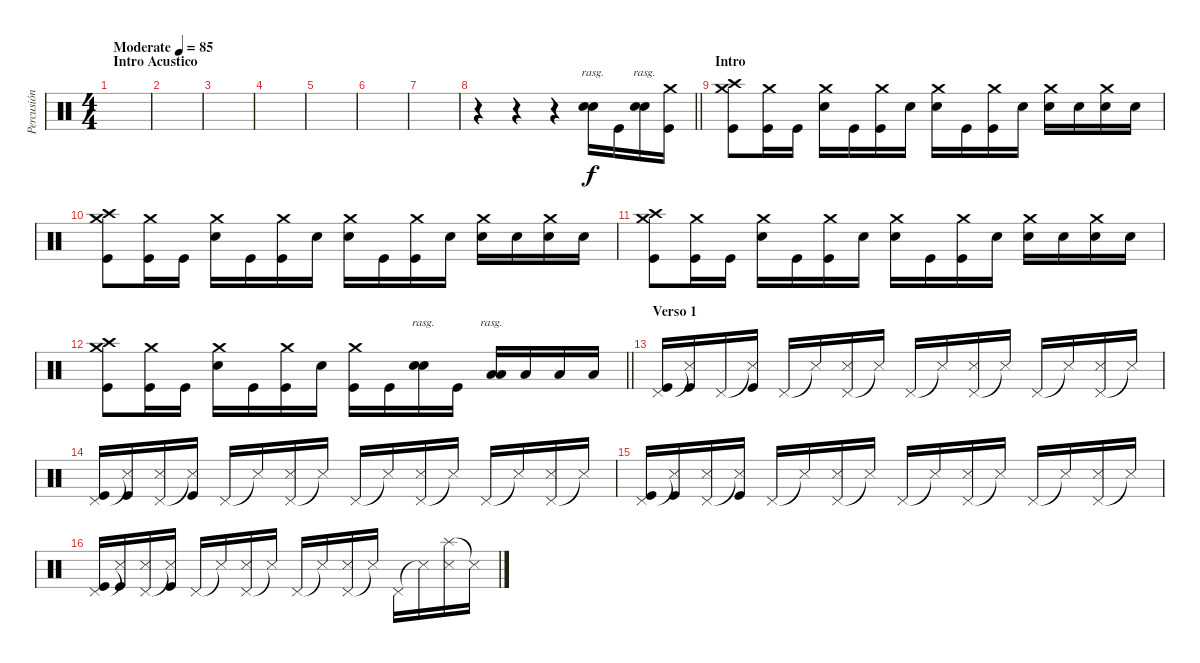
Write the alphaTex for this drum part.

\track ("Percusión" "Percusión") {instrument percussion}
\staff {score}
\articulation defaults
\ts (4 4)
\section ("" "Intro Acustico")
\tempo (85 "Moderate")
\clef neutral
\ks c
|
|
|
|
|
|
|
\barLineRight lightlight
r.4 r.4 r.4 ("Electric Snare (hit)" "Electric Snare (hit)").16{bd 240 rasg ii} "Kick (hit)".16 ("Electric Snare (hit)" "Electric Snare (hit)").16{bd 240 rasg ii} ("Crash medium (hit)" "Kick (hit)").16 |
\section ("" "Intro")
("Crash medium (hit)" "Crash high (hit)" "Kick (hit)").8 ("Crash medium (hit)" "Kick (hit)").16 "Kick (hit)".16 ("Crash medium (hit)" "Electric Snare (hit)").16 "Kick (hit)".16 ("Crash medium (hit)" "Kick (hit)").16 "Electric Snare (hit)".16 ("Crash medium (hit)" "Electric Snare (hit)").16 "Kick (hit)".16 ("Crash medium (hit)" "Kick (hit)").16 "Electric Snare (hit)".16 ("Crash medium (hit)" "Electric Snare (hit)").16 "Electric Snare (hit)".16 ("Crash medium (hit)" "Electric Snare (hit)").16 "Electric Snare (hit)".16 |
("Crash medium (hit)" "Crash high (hit)" "Kick (hit)").8 ("Crash medium (hit)" "Kick (hit)").16 "Kick (hit)".16 ("Crash medium (hit)" "Electric Snare (hit)").16 "Kick (hit)".16 ("Crash medium (hit)" "Kick (hit)").16 "Electric Snare (hit)".16 ("Crash medium (hit)" "Electric Snare (hit)").16 "Kick (hit)".16 ("Crash medium (hit)" "Kick (hit)").16 "Electric Snare (hit)".16 ("Crash medium (hit)" "Electric Snare (hit)").16 "Electric Snare (hit)".16 ("Crash medium (hit)" "Electric Snare (hit)").16 "Electric Snare (hit)".16 |
("Crash medium (hit)" "Crash high (hit)" "Kick (hit)").8 ("Crash medium (hit)" "Kick (hit)").16 "Kick (hit)".16 ("Crash medium (hit)" "Electric Snare (hit)").16 "Kick (hit)".16 ("Crash medium (hit)" "Kick (hit)").16 "Electric Snare (hit)".16 ("Crash medium (hit)" "Electric Snare (hit)").16 "Kick (hit)".16 ("Crash medium (hit)" "Kick (hit)").16 "Electric Snare (hit)".16 ("Crash medium (hit)" "Electric Snare (hit)").16 "Electric Snare (hit)".16 ("Crash medium (hit)" "Electric Snare (hit)").16 "Electric Snare (hit)".16 |
\barLineRight lightlight
("Crash medium (hit)" "Crash high (hit)" "Kick (hit)").8 ("Crash medium (hit)" "Kick (hit)").16 "Kick (hit)".16 ("Crash medium (hit)" "Electric Snare (hit)").16 "Kick (hit)".16 ("Crash medium (hit)" "Kick (hit)").16 "Electric Snare (hit)".16 ("Crash medium (hit)" "Kick (hit)").16 "Kick (hit)".16 ("Electric Snare (hit)" "Electric Snare (hit)").16{bd 240 rasg ii} "Kick (hit)".16 ("Low Tom (hit)" "Low Tom (hit)").16{bd 240 rasg ii} "Low Floor Tom (hit)".16 "Low Floor Tom (hit)".16 "Low Floor Tom (hit)".16 |
\section ("" "Verso 1")
("Pedal Hi-Hat (hit)" "Kick (hit)").16 ("Snare (side stick) 3"{t} "Kick (hit)").16 "Pedal Hi-Hat (hit)".16 ("Snare (side stick) 3"{t} "Kick (hit)").16 "Pedal Hi-Hat (hit)".16 "Snare (side stick) 3"{t}.16 ("Pedal Hi-Hat (hit)" "Snare (side stick) 3").16 "Snare (side stick) 3"{t}.16 "Pedal Hi-Hat (hit)".16 "Snare (side stick) 3"{t}.16 ("Pedal Hi-Hat (hit)" "Snare (side stick) 3").16 "Snare (side stick) 3"{t}.16 "Pedal Hi-Hat (hit)".16 "Snare (side stick) 3"{t}.16 ("Pedal Hi-Hat (hit)" "Snare (side stick) 3").16 "Snare (side stick) 3"{t}.16 |
("Pedal Hi-Hat (hit)" "Kick (hit)").16 ("Snare (side stick) 3"{t} "Kick (hit)").16 ("Pedal Hi-Hat (hit)" "Snare (side stick) 3").16 ("Snare (side stick) 3"{t} "Kick (hit)").16 "Pedal Hi-Hat (hit)".16 "Snare (side stick) 3"{t}.16 ("Pedal Hi-Hat (hit)" "Snare (side stick) 3").16 "Snare (side stick) 3"{t}.16 "Pedal Hi-Hat (hit)".16 "Snare (side stick) 3"{t}.16 ("Pedal Hi-Hat (hit)" "Snare (side stick) 3").16 "Snare (side stick) 3"{t}.16 "Pedal Hi-Hat (hit)".16 "Snare (side stick) 3"{t}.16 ("Pedal Hi-Hat (hit)" "Snare (side stick) 3").16 "Snare (side stick) 3"{t}.16 |
("Pedal Hi-Hat (hit)" "Kick (hit)").16 ("Snare (side stick) 3"{t} "Kick (hit)").16 ("Pedal Hi-Hat (hit)" "Snare (side stick) 3").16 ("Snare (side stick) 3"{t} "Kick (hit)").16 "Pedal Hi-Hat (hit)".16 "Snare (side stick) 3"{t}.16 ("Pedal Hi-Hat (hit)" "Snare (side stick) 3").16 "Snare (side stick) 3"{t}.16 "Pedal Hi-Hat (hit)".16 "Snare (side stick) 3"{t}.16 ("Pedal Hi-Hat (hit)" "Snare (side stick) 3").16 "Snare (side stick) 3"{t}.16 "Pedal Hi-Hat (hit)".16 "Snare (side stick) 3"{t}.16 ("Pedal Hi-Hat (hit)" "Snare (side stick) 3").16 "Snare (side stick) 3"{t}.16 |
("Pedal Hi-Hat (hit)" "Kick (hit)").16 ("Snare (side stick) 3"{t} "Kick (hit)").16 ("Pedal Hi-Hat (hit)" "Snare (side stick) 3").16 ("Snare (side stick) 3"{t} "Kick (hit)").16 "Pedal Hi-Hat (hit)".16 "Snare (side stick) 3"{t}.16 ("Pedal Hi-Hat (hit)" "Snare (side stick) 3").16 "Snare (side stick) 3"{t}.16 "Pedal Hi-Hat (hit)".16 "Snare (side stick) 3"{t}.16 ("Pedal Hi-Hat (hit)" "Snare (side stick) 3").16 "Snare (side stick) 3"{t}.16 "Pedal Hi-Hat (hit)".16 "Snare (side stick) 3"{t}.16 ("Splash (hit)" "Snare (side stick) 3").16 "Snare (side stick) 3"{t}.16
